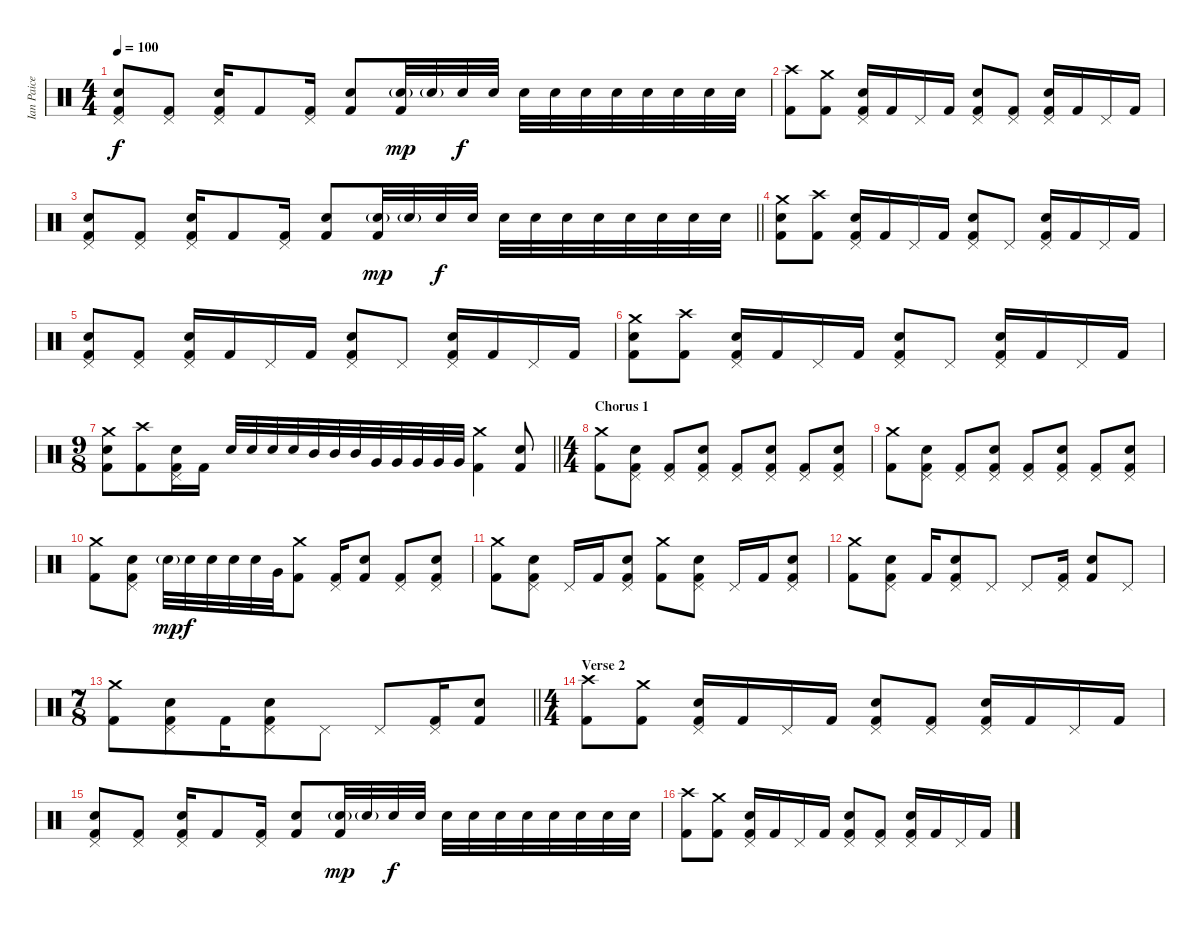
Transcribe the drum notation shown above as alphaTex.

\track ("Ian Paice - Drums" "Ian Paice ") {instrument percussion}
\staff {score}
\articulation defaults
\ts (4 4)
\tempo 100
\clef neutral
\ks c
("Kick (hit) 2" "Pedal Hi-Hat (hit)" "Electric Snare (hit)").8{dy f} ("Kick (hit) 2" "Pedal Hi-Hat (hit)").8 ("Kick (hit) 2" "Pedal Hi-Hat (hit)" "Electric Snare (hit)").16 "Kick (hit) 2".8 ("Kick (hit) 2" "Pedal Hi-Hat (hit)").16 ("Kick (hit) 2" "Electric Snare (hit)").8 ("Kick (hit) 2" "Electric Snare (hit)"{g}).32{dy mp} "Electric Snare (hit)"{g}.32 "Electric Snare (hit)".32{dy f} "Electric Snare (hit)".32 "Electric Snare (hit)".32 "Electric Snare (hit)".32 "Electric Snare (hit)".32 "Electric Snare (hit)".32 "Electric Snare (hit)".32 "Electric Snare (hit)".32 "Electric Snare (hit)".32 "Electric Snare (hit)".32 |
("Kick (hit) 2" "Crash high (hit)").8 ("Kick (hit) 2" "Crash medium (hit)").8 ("Kick (hit) 2" "Pedal Hi-Hat (hit)" "Electric Snare (hit)").16 "Kick (hit) 2".16 "Pedal Hi-Hat (hit)".16 "Kick (hit) 2".16 ("Kick (hit) 2" "Pedal Hi-Hat (hit)" "Electric Snare (hit)").8 ("Kick (hit) 2" "Pedal Hi-Hat (hit)").8 ("Kick (hit) 2" "Pedal Hi-Hat (hit)" "Electric Snare (hit)").16 "Kick (hit) 2".16 "Pedal Hi-Hat (hit)".16 "Kick (hit) 2".16 |
\barLineRight lightlight
("Kick (hit) 2" "Pedal Hi-Hat (hit)" "Electric Snare (hit)").8 ("Kick (hit) 2" "Pedal Hi-Hat (hit)").8 ("Kick (hit) 2" "Pedal Hi-Hat (hit)" "Electric Snare (hit)").16 "Kick (hit) 2".8 ("Kick (hit) 2" "Pedal Hi-Hat (hit)").16 ("Kick (hit) 2" "Electric Snare (hit)").8 ("Kick (hit) 2" "Electric Snare (hit)"{g}).32{dy mp} "Electric Snare (hit)"{g}.32 "Electric Snare (hit)".32{dy f} "Electric Snare (hit)".32 "Electric Snare (hit)".32 "Electric Snare (hit)".32 "Electric Snare (hit)".32 "Electric Snare (hit)".32 "Electric Snare (hit)".32 "Electric Snare (hit)".32 "Electric Snare (hit)".32 "Electric Snare (hit)".32 |
("Kick (hit) 2" "Crash medium (hit)" "Electric Snare (hit)").8 ("Kick (hit) 2" "Crash high (hit)").8 ("Kick (hit) 2" "Pedal Hi-Hat (hit)" "Electric Snare (hit)").16 "Kick (hit) 2".16 "Pedal Hi-Hat (hit)".16 "Kick (hit) 2".16 ("Kick (hit) 2" "Pedal Hi-Hat (hit)" "Electric Snare (hit)").8 "Pedal Hi-Hat (hit)".8 ("Kick (hit) 2" "Pedal Hi-Hat (hit)" "Electric Snare (hit)").16 "Kick (hit) 2".16 "Pedal Hi-Hat (hit)".16 "Kick (hit) 2".16 |
("Kick (hit) 2" "Pedal Hi-Hat (hit)" "Electric Snare (hit)").8 ("Kick (hit) 2" "Pedal Hi-Hat (hit)").8 ("Kick (hit) 2" "Pedal Hi-Hat (hit)" "Electric Snare (hit)").16 "Kick (hit) 2".16 "Pedal Hi-Hat (hit)".16 "Kick (hit) 2".16 ("Kick (hit) 2" "Pedal Hi-Hat (hit)" "Electric Snare (hit)").8 "Pedal Hi-Hat (hit)".8 ("Kick (hit) 2" "Pedal Hi-Hat (hit)" "Electric Snare (hit)").16 "Kick (hit) 2".16 "Pedal Hi-Hat (hit)".16 "Kick (hit) 2".16 |
("Kick (hit) 2" "Crash medium (hit)" "Electric Snare (hit)").8 ("Kick (hit) 2" "Crash high (hit)").8 ("Kick (hit) 2" "Pedal Hi-Hat (hit)" "Electric Snare (hit)").16 "Kick (hit) 2".16 "Pedal Hi-Hat (hit)".16 "Kick (hit) 2".16 ("Kick (hit) 2" "Pedal Hi-Hat (hit)" "Electric Snare (hit)").8 "Pedal Hi-Hat (hit)".8 ("Kick (hit) 2" "Pedal Hi-Hat (hit)" "Electric Snare (hit)").16 "Kick (hit) 2".16 "Pedal Hi-Hat (hit)".16 "Kick (hit) 2".16 |
\ts (9 8)
\barLineRight lightlight
("Kick (hit) 2" "Crash medium (hit)" "Electric Snare (hit)").8 ("Kick (hit) 2" "Crash high (hit)").8 ("Kick (hit) 2" "Pedal Hi-Hat (hit)" "Electric Snare (hit)").16 "Kick (hit) 2".16 "Electric Snare (hit)".32 "Electric Snare (hit)".32 "Electric Snare (hit)".32 "Electric Snare (hit)".32 "Mid Tom (hit)".32 "Mid Tom (hit)".32 "Mid Tom (hit)".32 "Very Low Tom (hit)".32 "Very Low Tom (hit)".32 "Very Low Tom (hit)".32 "Very Low Tom (hit)".32 "Very Low Tom (hit)".32 ("Kick (hit) 2" "Crash medium (hit)").4 ("Kick (hit) 2" "Electric Snare (hit)").8 |
\ts (4 4)
\section ("" "Chorus 1")
("Kick (hit) 2" "Crash medium (hit)").8 ("Kick (hit) 2" "Pedal Hi-Hat (hit)" "Electric Snare (hit)").8 ("Kick (hit) 2" "Pedal Hi-Hat (hit)").8 ("Kick (hit) 2" "Pedal Hi-Hat (hit)" "Electric Snare (hit)").8 ("Kick (hit) 2" "Pedal Hi-Hat (hit)").8 ("Kick (hit) 2" "Pedal Hi-Hat (hit)" "Electric Snare (hit)").8 ("Kick (hit) 2" "Pedal Hi-Hat (hit)").8 ("Kick (hit) 2" "Pedal Hi-Hat (hit)" "Electric Snare (hit)").8 |
("Kick (hit) 2" "Crash medium (hit)").8 ("Kick (hit) 2" "Pedal Hi-Hat (hit)" "Electric Snare (hit)").8 ("Kick (hit) 2" "Pedal Hi-Hat (hit)").8 ("Kick (hit) 2" "Pedal Hi-Hat (hit)" "Electric Snare (hit)").8 ("Kick (hit) 2" "Pedal Hi-Hat (hit)").8 ("Kick (hit) 2" "Pedal Hi-Hat (hit)" "Electric Snare (hit)").8 ("Kick (hit) 2" "Pedal Hi-Hat (hit)").8 ("Kick (hit) 2" "Pedal Hi-Hat (hit)" "Electric Snare (hit)").8 |
("Kick (hit) 2" "Crash medium (hit)").8 ("Kick (hit) 2" "Pedal Hi-Hat (hit)" "Electric Snare (hit)").8 "Electric Snare (hit)"{g}.32{dy mp} "Electric Snare (hit)".32{dy f} "Electric Snare (hit)".32 "Electric Snare (hit)".32 "Electric Snare (hit)".32 "Very Low Tom (hit)".32 ("Kick (hit) 2" "Crash medium (hit)").8 ("Kick (hit) 2" "Pedal Hi-Hat (hit)").16 ("Kick (hit) 2" "Electric Snare (hit)").8 ("Kick (hit) 2" "Pedal Hi-Hat (hit)").8 ("Kick (hit) 2" "Pedal Hi-Hat (hit)" "Electric Snare (hit)").8 |
("Kick (hit) 2" "Crash medium (hit)").8 ("Kick (hit) 2" "Pedal Hi-Hat (hit)" "Electric Snare (hit)").8 "Pedal Hi-Hat (hit)".16 "Kick (hit) 2".16 ("Kick (hit) 2" "Pedal Hi-Hat (hit)" "Electric Snare (hit)").8 ("Kick (hit) 2" "Crash medium (hit)").8 ("Kick (hit) 2" "Pedal Hi-Hat (hit)" "Electric Snare (hit)").8 "Pedal Hi-Hat (hit)".16 "Kick (hit) 2".16 ("Kick (hit) 2" "Pedal Hi-Hat (hit)" "Electric Snare (hit)").8 |
("Kick (hit) 2" "Crash medium (hit)").8 ("Kick (hit) 2" "Pedal Hi-Hat (hit)" "Electric Snare (hit)").8 "Kick (hit) 2".16 ("Kick (hit) 2" "Pedal Hi-Hat (hit)" "Electric Snare (hit)").8 "Pedal Hi-Hat (hit)".8 "Pedal Hi-Hat (hit)".8 ("Kick (hit) 2" "Pedal Hi-Hat (hit)").16 ("Kick (hit) 2" "Electric Snare (hit)").8 "Pedal Hi-Hat (hit)".8 |
\ts (7 8)
\barLineRight lightlight
("Kick (hit) 2" "Crash medium (hit)").8 ("Kick (hit) 2" "Pedal Hi-Hat (hit)" "Electric Snare (hit)").8 "Kick (hit) 2".16 ("Kick (hit) 2" "Pedal Hi-Hat (hit)" "Electric Snare (hit)").8 "Pedal Hi-Hat (hit)".8 "Pedal Hi-Hat (hit)".8 ("Kick (hit) 2" "Pedal Hi-Hat (hit)").16 ("Kick (hit) 2" "Electric Snare (hit)").8 |
\ts (4 4)
\section ("" "Verse 2")
("Kick (hit) 2" "Crash high (hit)").8 ("Kick (hit) 2" "Crash medium (hit)").8 ("Kick (hit) 2" "Pedal Hi-Hat (hit)" "Electric Snare (hit)").16 "Kick (hit) 2".16 "Pedal Hi-Hat (hit)".16 "Kick (hit) 2".16 ("Kick (hit) 2" "Pedal Hi-Hat (hit)" "Electric Snare (hit)").8 ("Kick (hit) 2" "Pedal Hi-Hat (hit)").8 ("Kick (hit) 2" "Pedal Hi-Hat (hit)" "Electric Snare (hit)").16 "Kick (hit) 2".16 "Pedal Hi-Hat (hit)".16 "Kick (hit) 2".16 |
("Kick (hit) 2" "Pedal Hi-Hat (hit)" "Electric Snare (hit)").8 ("Kick (hit) 2" "Pedal Hi-Hat (hit)").8 ("Kick (hit) 2" "Pedal Hi-Hat (hit)" "Electric Snare (hit)").16 "Kick (hit) 2".8 ("Kick (hit) 2" "Pedal Hi-Hat (hit)").16 ("Kick (hit) 2" "Electric Snare (hit)").8 ("Kick (hit) 2" "Electric Snare (hit)"{g}).32{dy mp} "Electric Snare (hit)"{g}.32 "Electric Snare (hit)".32{dy f} "Electric Snare (hit)".32 "Electric Snare (hit)".32 "Electric Snare (hit)".32 "Electric Snare (hit)".32 "Electric Snare (hit)".32 "Electric Snare (hit)".32 "Electric Snare (hit)".32 "Electric Snare (hit)".32 "Electric Snare (hit)".32 |
("Kick (hit) 2" "Crash high (hit)").8 ("Kick (hit) 2" "Crash medium (hit)").8 ("Kick (hit) 2" "Pedal Hi-Hat (hit)" "Electric Snare (hit)").16 "Kick (hit) 2".16 "Pedal Hi-Hat (hit)".16 "Kick (hit) 2".16 ("Kick (hit) 2" "Pedal Hi-Hat (hit)" "Electric Snare (hit)").8 ("Kick (hit) 2" "Pedal Hi-Hat (hit)").8 ("Kick (hit) 2" "Pedal Hi-Hat (hit)" "Electric Snare (hit)").16 "Kick (hit) 2".16 "Pedal Hi-Hat (hit)".16 "Kick (hit) 2".16
